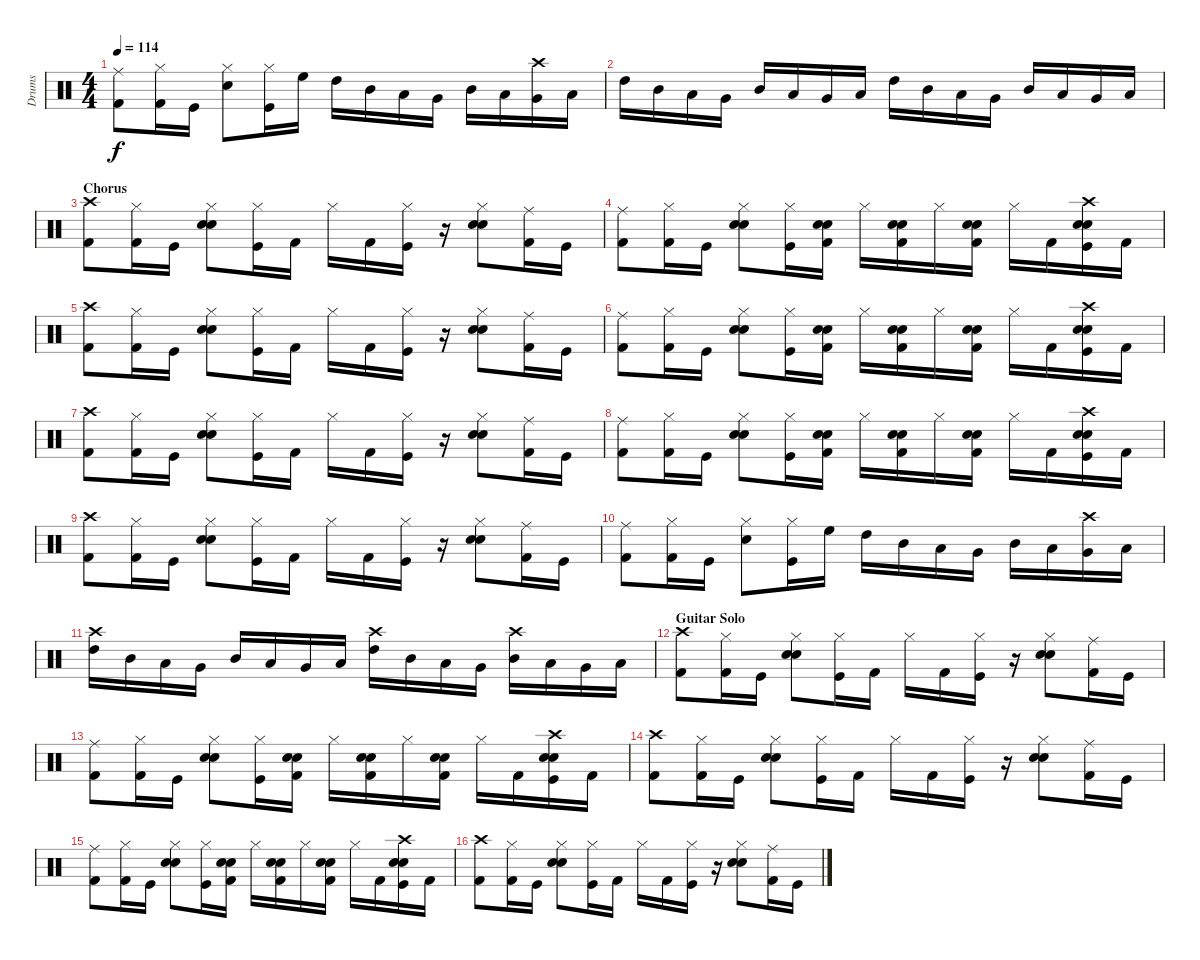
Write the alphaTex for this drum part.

\track ("Drums" "Drums") {instrument percussion}
\staff {score}
\articulation defaults
\ts (4 4)
\tempo 114
\clef neutral
\ks c
("Ride (middle)" "Kick (hit) 2").8{dy f} ("Hi-Hat (closed)" "Kick (hit) 2").16 "Kick (hit)".16 ("Hi-Hat (closed)" "Snare (hit) 2").8 ("Hi-Hat (closed)" "Kick (hit)").16 "High Floor Tom (hit)".16 "High Tom (hit)".16 "Mid Tom (hit)".16 "Low Tom (hit)".16 "Very Low Tom (hit)".16 "Mid Tom (hit)".16 "Low Tom (hit)".16 ("Crash high (hit)" "Very Low Tom (hit)").16 "Low Floor Tom (hit)".16 |
"High Tom (hit)".16 "Mid Tom (hit)".16 "Low Tom (hit)".16 "Very Low Tom (hit)".16 "Mid Tom (hit)".16 "Low Tom (hit)".16 "Very Low Tom (hit)".16 "Low Floor Tom (hit)".16 "High Tom (hit)".16 "Mid Tom (hit)".16 "Low Tom (hit)".16 "Very Low Tom (hit)".16 "Mid Tom (hit)".16 "Low Tom (hit)".16 "Very Low Tom (hit)".16 "Low Floor Tom (hit)".16 |
\section ("" "Chorus")
("Crash high (hit)" "Kick (hit) 2").8 ("Hi-Hat (closed)" "Kick (hit) 2").16 "Kick (hit)".16 ("Hi-Hat (closed)" "Electric Snare (hit)" "Snare (hit) 2").8 ("Hi-Hat (closed)" "Kick (hit)").16 "Kick (hit) 2".16 "Hi-Hat (closed)".16 "Kick (hit) 2".16 ("Hi-Hat (closed)" "Kick (hit)").16 r.16 ("Hi-Hat (closed)" "Electric Snare (hit)" "Snare (hit) 2").8 ("Ride (middle)" "Kick (hit) 2").16 "Kick (hit)".16 |
("Ride (middle)" "Kick (hit) 2").8 ("Hi-Hat (closed)" "Kick (hit) 2").16 "Kick (hit)".16 ("Hi-Hat (closed)" "Electric Snare (hit)" "Snare (hit) 2").8 ("Hi-Hat (closed)" "Kick (hit)").16 ("Electric Snare (hit)" "Snare (hit) 2" "Kick (hit) 2").16 "Hi-Hat (closed)".16 ("Electric Snare (hit)" "Snare (hit) 2" "Kick (hit) 2").16 "Hi-Hat (closed)".16 ("Electric Snare (hit)" "Snare (hit) 2" "Kick (hit) 2").16 "Hi-Hat (closed)".16 "Kick (hit) 2".16 ("Crash high (hit)" "Electric Snare (hit)" "Snare (hit) 2" "Kick (hit)").16 "Kick (hit) 2".16 |
("Crash high (hit)" "Kick (hit) 2").8 ("Hi-Hat (closed)" "Kick (hit) 2").16 "Kick (hit)".16 ("Hi-Hat (closed)" "Electric Snare (hit)" "Snare (hit) 2").8 ("Hi-Hat (closed)" "Kick (hit)").16 "Kick (hit) 2".16 "Hi-Hat (closed)".16 "Kick (hit) 2".16 ("Hi-Hat (closed)" "Kick (hit)").16 r.16 ("Hi-Hat (closed)" "Electric Snare (hit)" "Snare (hit) 2").8 ("Ride (middle)" "Kick (hit) 2").16 "Kick (hit)".16 |
("Ride (middle)" "Kick (hit) 2").8 ("Hi-Hat (closed)" "Kick (hit) 2").16 "Kick (hit)".16 ("Hi-Hat (closed)" "Electric Snare (hit)" "Snare (hit) 2").8 ("Hi-Hat (closed)" "Kick (hit)").16 ("Electric Snare (hit)" "Snare (hit) 2" "Kick (hit) 2").16 "Hi-Hat (closed)".16 ("Electric Snare (hit)" "Snare (hit) 2" "Kick (hit) 2").16 "Hi-Hat (closed)".16 ("Electric Snare (hit)" "Snare (hit) 2" "Kick (hit) 2").16 "Hi-Hat (closed)".16 "Kick (hit) 2".16 ("Crash high (hit)" "Electric Snare (hit)" "Snare (hit) 2" "Kick (hit)").16 "Kick (hit) 2".16 |
("Crash high (hit)" "Kick (hit) 2").8 ("Hi-Hat (closed)" "Kick (hit) 2").16 "Kick (hit)".16 ("Hi-Hat (closed)" "Electric Snare (hit)" "Snare (hit) 2").8 ("Hi-Hat (closed)" "Kick (hit)").16 "Kick (hit) 2".16 "Hi-Hat (closed)".16 "Kick (hit) 2".16 ("Hi-Hat (closed)" "Kick (hit)").16 r.16 ("Hi-Hat (closed)" "Electric Snare (hit)" "Snare (hit) 2").8 ("Ride (middle)" "Kick (hit) 2").16 "Kick (hit)".16 |
("Ride (middle)" "Kick (hit) 2").8 ("Hi-Hat (closed)" "Kick (hit) 2").16 "Kick (hit)".16 ("Hi-Hat (closed)" "Electric Snare (hit)" "Snare (hit) 2").8 ("Hi-Hat (closed)" "Kick (hit)").16 ("Electric Snare (hit)" "Snare (hit) 2" "Kick (hit) 2").16 "Hi-Hat (closed)".16 ("Electric Snare (hit)" "Snare (hit) 2" "Kick (hit) 2").16 "Hi-Hat (closed)".16 ("Electric Snare (hit)" "Snare (hit) 2" "Kick (hit) 2").16 "Hi-Hat (closed)".16 "Kick (hit) 2".16 ("Crash high (hit)" "Electric Snare (hit)" "Snare (hit) 2" "Kick (hit)").16 "Kick (hit) 2".16 |
("Crash high (hit)" "Kick (hit) 2").8 ("Hi-Hat (closed)" "Kick (hit) 2").16 "Kick (hit)".16 ("Hi-Hat (closed)" "Electric Snare (hit)" "Snare (hit) 2").8 ("Hi-Hat (closed)" "Kick (hit)").16 "Kick (hit) 2".16 "Hi-Hat (closed)".16 "Kick (hit) 2".16 ("Hi-Hat (closed)" "Kick (hit)").16 r.16 ("Hi-Hat (closed)" "Electric Snare (hit)" "Snare (hit) 2").8 ("Ride (middle)" "Kick (hit) 2").16 "Kick (hit)".16 |
("Ride (middle)" "Kick (hit) 2").8 ("Hi-Hat (closed)" "Kick (hit) 2").16 "Kick (hit)".16 ("Hi-Hat (closed)" "Snare (hit) 2").8 ("Hi-Hat (closed)" "Kick (hit)").16 "High Floor Tom (hit)".16 "High Tom (hit)".16 "Mid Tom (hit)".16 "Low Tom (hit)".16 "Very Low Tom (hit)".16 "Mid Tom (hit)".16 "Low Tom (hit)".16 ("Crash high (hit)" "Very Low Tom (hit)").16 "Low Floor Tom (hit)".16 |
("Crash high (hit)" "High Tom (hit)").16 "Mid Tom (hit)".16 "Low Tom (hit)".16 "Very Low Tom (hit)".16 "Mid Tom (hit)".16 "Low Tom (hit)".16 "Very Low Tom (hit)".16 "Low Floor Tom (hit)".16 ("Crash high (hit)" "High Tom (hit)").16 "Mid Tom (hit)".16 "Low Tom (hit)".16 "Very Low Tom (hit)".16 ("Crash high (hit)" "Mid Tom (hit)").16 "Low Tom (hit)".16 "Very Low Tom (hit)".16 "Low Floor Tom (hit)".16 |
\section ("" "Guitar Solo")
("Crash high (hit)" "Kick (hit) 2").8 ("Hi-Hat (closed)" "Kick (hit) 2").16 "Kick (hit)".16 ("Hi-Hat (closed)" "Electric Snare (hit)" "Snare (hit) 2").8 ("Hi-Hat (closed)" "Kick (hit)").16 "Kick (hit) 2".16 "Hi-Hat (closed)".16 "Kick (hit) 2".16 ("Hi-Hat (closed)" "Kick (hit)").16 r.16 ("Hi-Hat (closed)" "Electric Snare (hit)" "Snare (hit) 2").8 ("Ride (middle)" "Kick (hit) 2").16 "Kick (hit)".16 |
("Ride (middle)" "Kick (hit) 2").8 ("Hi-Hat (closed)" "Kick (hit) 2").16 "Kick (hit)".16 ("Hi-Hat (closed)" "Electric Snare (hit)" "Snare (hit) 2").8 ("Hi-Hat (closed)" "Kick (hit)").16 ("Electric Snare (hit)" "Snare (hit) 2" "Kick (hit) 2").16 "Hi-Hat (closed)".16 ("Electric Snare (hit)" "Snare (hit) 2" "Kick (hit) 2").16 "Hi-Hat (closed)".16 ("Electric Snare (hit)" "Snare (hit) 2" "Kick (hit) 2").16 "Hi-Hat (closed)".16 "Kick (hit) 2".16 ("Crash high (hit)" "Electric Snare (hit)" "Snare (hit) 2" "Kick (hit)").16 "Kick (hit) 2".16 |
("Crash high (hit)" "Kick (hit) 2").8 ("Hi-Hat (closed)" "Kick (hit) 2").16 "Kick (hit)".16 ("Hi-Hat (closed)" "Electric Snare (hit)" "Snare (hit) 2").8 ("Hi-Hat (closed)" "Kick (hit)").16 "Kick (hit) 2".16 "Hi-Hat (closed)".16 "Kick (hit) 2".16 ("Hi-Hat (closed)" "Kick (hit)").16 r.16 ("Hi-Hat (closed)" "Electric Snare (hit)" "Snare (hit) 2").8 ("Ride (middle)" "Kick (hit) 2").16 "Kick (hit)".16 |
("Ride (middle)" "Kick (hit) 2").8 ("Hi-Hat (closed)" "Kick (hit) 2").16 "Kick (hit)".16 ("Hi-Hat (closed)" "Electric Snare (hit)" "Snare (hit) 2").8 ("Hi-Hat (closed)" "Kick (hit)").16 ("Electric Snare (hit)" "Snare (hit) 2" "Kick (hit) 2").16 "Hi-Hat (closed)".16 ("Electric Snare (hit)" "Snare (hit) 2" "Kick (hit) 2").16 "Hi-Hat (closed)".16 ("Electric Snare (hit)" "Snare (hit) 2" "Kick (hit) 2").16 "Hi-Hat (closed)".16 "Kick (hit) 2".16 ("Crash high (hit)" "Electric Snare (hit)" "Snare (hit) 2" "Kick (hit)").16 "Kick (hit) 2".16 |
("Crash high (hit)" "Kick (hit) 2").8 ("Hi-Hat (closed)" "Kick (hit) 2").16 "Kick (hit)".16 ("Hi-Hat (closed)" "Electric Snare (hit)" "Snare (hit) 2").8 ("Hi-Hat (closed)" "Kick (hit)").16 "Kick (hit) 2".16 "Hi-Hat (closed)".16 "Kick (hit) 2".16 ("Hi-Hat (closed)" "Kick (hit)").16 r.16 ("Hi-Hat (closed)" "Electric Snare (hit)" "Snare (hit) 2").8 ("Ride (middle)" "Kick (hit) 2").16 "Kick (hit)".16
